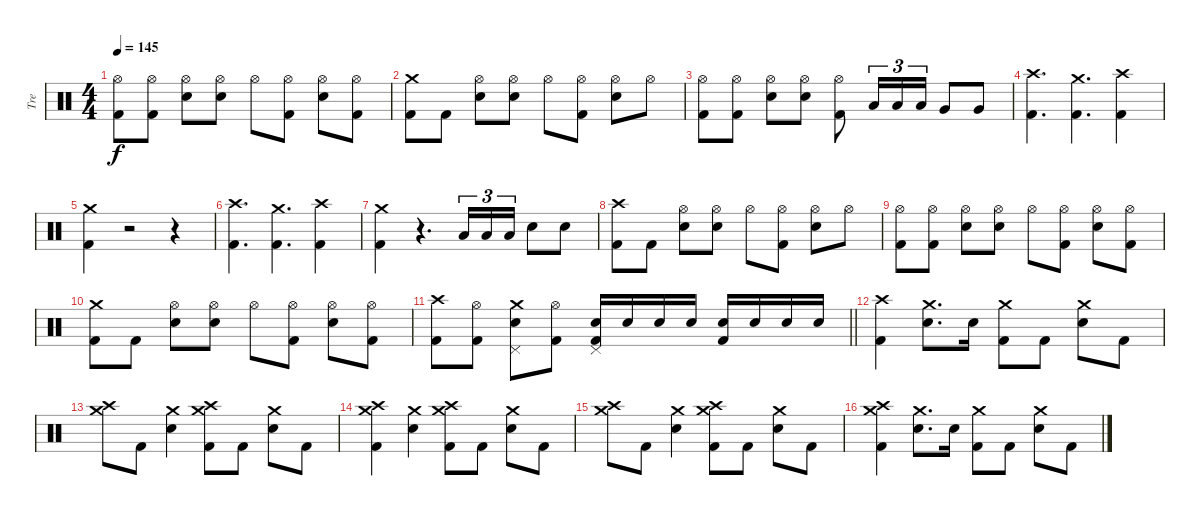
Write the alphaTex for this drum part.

\track ("Tre" "Tre") {instrument percussion}
\staff {score}
\articulation defaults
\ts (4 4)
\tempo 145
\clef neutral
\ks c
("Hi-Hat (open)" "Kick (hit) 2").8{dy f} ("Hi-Hat (open)" "Kick (hit) 2").8 ("Hi-Hat (open)" "Snare (hit) 2").8 ("Hi-Hat (open)" "Snare (hit) 2").8 "Hi-Hat (open)".8 ("Hi-Hat (open)" "Kick (hit) 2").8 ("Hi-Hat (open)" "Snare (hit) 2").8 ("Hi-Hat (open)" "Kick (hit) 2").8 |
("Crash medium (hit)" "Kick (hit) 2").8 "Kick (hit) 2".8 ("Hi-Hat (open)" "Snare (hit) 2").8 ("Hi-Hat (open)" "Snare (hit) 2").8 "Hi-Hat (open)".8 ("Hi-Hat (open)" "Kick (hit) 2").8 ("Hi-Hat (open)" "Snare (hit) 2").8 "Hi-Hat (open)".8 |
("Hi-Hat (open)" "Kick (hit) 2").8 ("Hi-Hat (open)" "Kick (hit) 2").8 ("Hi-Hat (open)" "Snare (hit) 2").8 ("Hi-Hat (open)" "Snare (hit) 2").8 ("Hi-Hat (open)" "Kick (hit) 2").8 "Low Tom (hit)".16{tu (3 2)} "Low Tom (hit)".16{tu (3 2)} "Low Tom (hit)".16{tu (3 2)} "Very Low Tom (hit)".8 "Very Low Tom (hit)".8 |
("Crash high (hit)" "Kick (hit) 2").4{d} ("Crash medium (hit)" "Kick (hit) 2").4{d} ("Crash high (hit)" "Kick (hit) 2").4 |
("Crash medium (hit)" "Kick (hit) 2").4 r.2 r.4 |
("Crash high (hit)" "Kick (hit) 2").4{d} ("Crash medium (hit)" "Kick (hit) 2").4{d} ("Crash high (hit)" "Kick (hit) 2").4 |
("Crash medium (hit)" "Kick (hit) 2").4 r.4{d} "Low Tom (hit)".16{tu (3 2)} "Low Tom (hit)".16{tu (3 2)} "Low Tom (hit)".16{tu (3 2)} "Snare (hit) 2".8 "Snare (hit) 2".8 |
("Crash high (hit)" "Kick (hit) 2").8 "Kick (hit) 2".8 ("Hi-Hat (open)" "Snare (hit) 2").8 ("Hi-Hat (open)" "Snare (hit) 2").8 "Hi-Hat (open)".8 ("Hi-Hat (open)" "Kick (hit) 2").8 ("Hi-Hat (open)" "Snare (hit) 2").8 "Hi-Hat (open)".8 |
("Hi-Hat (open)" "Kick (hit) 2").8 ("Hi-Hat (open)" "Kick (hit) 2").8 ("Hi-Hat (open)" "Snare (hit) 2").8 ("Hi-Hat (open)" "Snare (hit) 2").8 "Hi-Hat (open)".8 ("Hi-Hat (open)" "Kick (hit) 2").8 ("Hi-Hat (open)" "Snare (hit) 2").8 ("Hi-Hat (open)" "Kick (hit) 2").8 |
("Crash medium (hit)" "Kick (hit) 2").8 "Kick (hit) 2".8 ("Hi-Hat (open)" "Snare (hit) 2").8 ("Hi-Hat (open)" "Snare (hit) 2").8 "Hi-Hat (open)".8 ("Hi-Hat (open)" "Kick (hit) 2").8 ("Hi-Hat (open)" "Snare (hit) 2").8 ("Hi-Hat (open)" "Kick (hit) 2").8 |
\barLineRight lightlight
("Crash high (hit)" "Kick (hit) 2").8 ("Hi-Hat (open)" "Kick (hit) 2").8 ("Crash medium (hit)" "Snare (hit) 2" "Pedal Hi-Hat (hit)").8 ("Hi-Hat (open)" "Kick (hit) 2").8 ("Snare (hit) 2" "Pedal Hi-Hat (hit)" "Kick (hit) 2").16 "Snare (hit) 2".16 "Snare (hit) 2".16 "Snare (hit) 2".16 ("Snare (hit) 2" "Kick (hit) 2").16 "Snare (hit) 2".16 "Snare (hit) 2".16 "Snare (hit) 2".16 |
("Crash high (hit)" "Kick (hit) 2").4 ("Crash medium (hit)" "Snare (hit) 2").8{d} "Snare (hit) 2".16 ("Crash medium (hit)" "Kick (hit) 2").8 "Kick (hit) 2".8 ("Crash medium (hit)" "Snare (hit) 2").8 "Kick (hit) 2".8 |
("Crash high (hit)" "Crash medium (hit)").8 "Kick (hit) 2".8 ("Crash medium (hit)" "Snare (hit) 2").4 ("Crash medium (hit)" "Crash high (hit)" "Kick (hit) 2").8 "Kick (hit) 2".8 ("Crash medium (hit)" "Snare (hit) 2").8 "Kick (hit) 2".8 |
("Crash high (hit)" "Crash medium (hit)" "Kick (hit) 2").4 ("Crash medium (hit)" "Snare (hit) 2").4 ("Crash medium (hit)" "Crash high (hit)" "Kick (hit) 2").8 "Kick (hit) 2".8 ("Crash medium (hit)" "Snare (hit) 2").8 "Kick (hit) 2".8 |
("Crash high (hit)" "Crash medium (hit)").8 "Kick (hit) 2".8 ("Crash medium (hit)" "Snare (hit) 2").4 ("Crash medium (hit)" "Crash high (hit)" "Kick (hit) 2").8 "Kick (hit) 2".8 ("Crash medium (hit)" "Snare (hit) 2").8 "Kick (hit) 2".8 |
("Crash high (hit)" "Crash medium (hit)" "Kick (hit) 2").4 ("Crash medium (hit)" "Snare (hit) 2").8{d} "Snare (hit) 2".16 ("Crash medium (hit)" "Kick (hit) 2").8 "Kick (hit) 2".8 ("Crash medium (hit)" "Snare (hit) 2").8 "Kick (hit) 2".8
